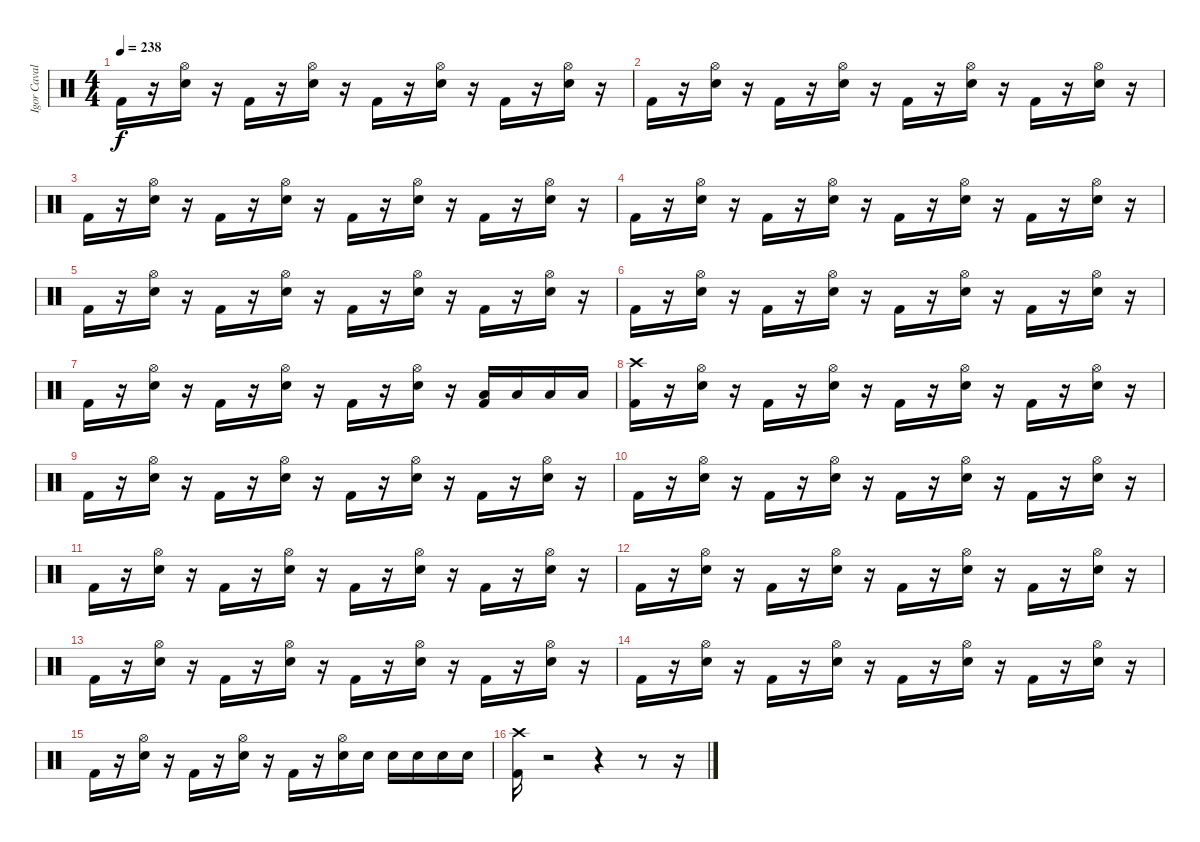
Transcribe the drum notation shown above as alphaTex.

\track ("Igor Cavalera" "Igor Caval") {instrument percussion}
\staff {score}
\articulation defaults
\ts (4 4)
\tempo 238
\clef neutral
\ks c "Kick (hit) 2".16{dy f}
r.16 ("Snare (hit) 2" "Hi-Hat (open)").16 r.16 "Kick (hit) 2".16 r.16 ("Snare (hit) 2" "Hi-Hat (open)").16 r.16 "Kick (hit) 2".16 r.16 ("Snare (hit) 2" "Hi-Hat (open)").16 r.16 "Kick (hit) 2".16 r.16 ("Snare (hit) 2" "Hi-Hat (open)").16 r.16 |
"Kick (hit) 2".16 r.16 ("Snare (hit) 2" "Hi-Hat (open)").16 r.16 "Kick (hit) 2".16 r.16 ("Snare (hit) 2" "Hi-Hat (open)").16 r.16 "Kick (hit) 2".16 r.16 ("Snare (hit) 2" "Hi-Hat (open)").16 r.16 "Kick (hit) 2".16 r.16 ("Snare (hit) 2" "Hi-Hat (open)").16 r.16 |
"Kick (hit) 2".16 r.16 ("Snare (hit) 2" "Hi-Hat (open)").16 r.16 "Kick (hit) 2".16 r.16 ("Snare (hit) 2" "Hi-Hat (open)").16 r.16 "Kick (hit) 2".16 r.16 ("Snare (hit) 2" "Hi-Hat (open)").16 r.16 "Kick (hit) 2".16 r.16 ("Snare (hit) 2" "Hi-Hat (open)").16 r.16 |
"Kick (hit) 2".16 r.16 ("Snare (hit) 2" "Hi-Hat (open)").16 r.16 "Kick (hit) 2".16 r.16 ("Snare (hit) 2" "Hi-Hat (open)").16 r.16 "Kick (hit) 2".16 r.16 ("Snare (hit) 2" "Hi-Hat (open)").16 r.16 "Kick (hit) 2".16 r.16 ("Snare (hit) 2" "Hi-Hat (open)").16 r.16 |
"Kick (hit) 2".16 r.16 ("Snare (hit) 2" "Hi-Hat (open)").16 r.16 "Kick (hit) 2".16 r.16 ("Snare (hit) 2" "Hi-Hat (open)").16 r.16 "Kick (hit) 2".16 r.16 ("Snare (hit) 2" "Hi-Hat (open)").16 r.16 "Kick (hit) 2".16 r.16 ("Snare (hit) 2" "Hi-Hat (open)").16 r.16 |
"Kick (hit) 2".16 r.16 ("Snare (hit) 2" "Hi-Hat (open)").16 r.16 "Kick (hit) 2".16 r.16 ("Snare (hit) 2" "Hi-Hat (open)").16 r.16 "Kick (hit) 2".16 r.16 ("Snare (hit) 2" "Hi-Hat (open)").16 r.16 "Kick (hit) 2".16 r.16 ("Snare (hit) 2" "Hi-Hat (open)").16 r.16 |
"Kick (hit) 2".16 r.16 ("Snare (hit) 2" "Hi-Hat (open)").16 r.16 "Kick (hit) 2".16 r.16 ("Snare (hit) 2" "Hi-Hat (open)").16 r.16 "Kick (hit) 2".16 r.16 ("Snare (hit) 2" "Hi-Hat (open)").16 r.16 ("Kick (hit) 2" "Low Tom (hit)").16 "Low Tom (hit)".16 "Low Floor Tom (hit)".16 "Low Floor Tom (hit)".16 |
("Crash high (hit)" "Kick (hit) 2").16 r.16 ("Snare (hit) 2" "Hi-Hat (open)").16 r.16 "Kick (hit) 2".16 r.16 ("Snare (hit) 2" "Hi-Hat (open)").16 r.16 "Kick (hit) 2".16 r.16 ("Snare (hit) 2" "Hi-Hat (open)").16 r.16 "Kick (hit) 2".16 r.16 ("Snare (hit) 2" "Hi-Hat (open)").16 r.16 |
"Kick (hit) 2".16 r.16 ("Snare (hit) 2" "Hi-Hat (open)").16 r.16 "Kick (hit) 2".16 r.16 ("Snare (hit) 2" "Hi-Hat (open)").16 r.16 "Kick (hit) 2".16 r.16 ("Snare (hit) 2" "Hi-Hat (open)").16 r.16 "Kick (hit) 2".16 r.16 ("Snare (hit) 2" "Hi-Hat (open)").16 r.16 |
"Kick (hit) 2".16 r.16 ("Snare (hit) 2" "Hi-Hat (open)").16 r.16 "Kick (hit) 2".16 r.16 ("Snare (hit) 2" "Hi-Hat (open)").16 r.16 "Kick (hit) 2".16 r.16 ("Snare (hit) 2" "Hi-Hat (open)").16 r.16 "Kick (hit) 2".16 r.16 ("Snare (hit) 2" "Hi-Hat (open)").16 r.16 |
"Kick (hit) 2".16 r.16 ("Snare (hit) 2" "Hi-Hat (open)").16 r.16 "Kick (hit) 2".16 r.16 ("Snare (hit) 2" "Hi-Hat (open)").16 r.16 "Kick (hit) 2".16 r.16 ("Snare (hit) 2" "Hi-Hat (open)").16 r.16 "Kick (hit) 2".16 r.16 ("Snare (hit) 2" "Hi-Hat (open)").16 r.16 |
"Kick (hit) 2".16 r.16 ("Snare (hit) 2" "Hi-Hat (open)").16 r.16 "Kick (hit) 2".16 r.16 ("Snare (hit) 2" "Hi-Hat (open)").16 r.16 "Kick (hit) 2".16 r.16 ("Snare (hit) 2" "Hi-Hat (open)").16 r.16 "Kick (hit) 2".16 r.16 ("Snare (hit) 2" "Hi-Hat (open)").16 r.16 |
"Kick (hit) 2".16 r.16 ("Snare (hit) 2" "Hi-Hat (open)").16 r.16 "Kick (hit) 2".16 r.16 ("Snare (hit) 2" "Hi-Hat (open)").16 r.16 "Kick (hit) 2".16 r.16 ("Snare (hit) 2" "Hi-Hat (open)").16 r.16 "Kick (hit) 2".16 r.16 ("Snare (hit) 2" "Hi-Hat (open)").16 r.16 |
"Kick (hit) 2".16 r.16 ("Snare (hit) 2" "Hi-Hat (open)").16 r.16 "Kick (hit) 2".16 r.16 ("Snare (hit) 2" "Hi-Hat (open)").16 r.16 "Kick (hit) 2".16 r.16 ("Snare (hit) 2" "Hi-Hat (open)").16 r.16 "Kick (hit) 2".16 r.16 ("Snare (hit) 2" "Hi-Hat (open)").16 r.16 |
"Kick (hit) 2".16 r.16 ("Snare (hit) 2" "Hi-Hat (open)").16 r.16 "Kick (hit) 2".16 r.16 ("Snare (hit) 2" "Hi-Hat (open)").16 r.16 "Kick (hit) 2".16 r.16 ("Snare (hit) 2" "Hi-Hat (open)").16 "Snare (hit) 2".16 "Snare (hit) 2".16 "Snare (hit) 2".16 "Snare (hit) 2".16 "Snare (hit) 2".16 |
("Kick (hit) 2" "Crash high (hit)").16 r.2 r.4 r.8 r.16
